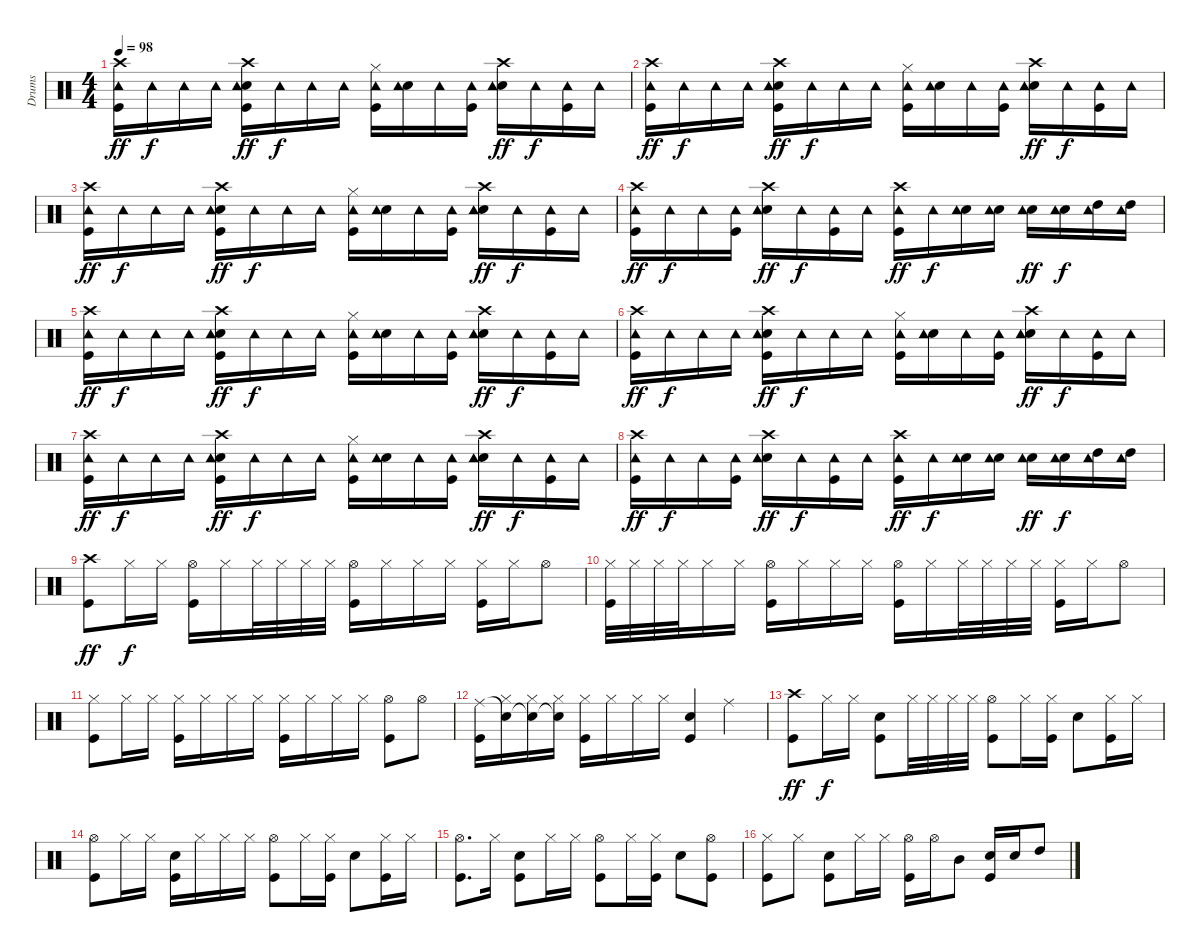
\track ("Drums" "Drums") {instrument percussion}
\staff {score}
\articulation defaults
\ts (4 4)
\tempo 98
\clef neutral
\ks c
("Crash high (hit)" "Kick (hit)" "Tambourine (hit)").16{dy ff} "Tambourine (hit)".16{dy f} "Tambourine (hit)".16 "Tambourine (hit)".16 ("Crash high (hit)" "Kick (hit)" "Electric Snare (hit)" "Tambourine (hit)").16{dy ff} "Tambourine (hit)".16{dy f} "Tambourine (hit)".16 "Tambourine (hit)".16 ("Hi-Hat (closed)" "Kick (hit)" "Tambourine (hit)").16 ("Electric Snare (hit)" "Tambourine (hit)").16 "Tambourine (hit)".16 ("Kick (hit)" "Tambourine (hit)").16 ("Crash high (hit)" "Electric Snare (hit)" "Tambourine (hit)").16{dy ff} "Tambourine (hit)".16{dy f} ("Kick (hit)" "Tambourine (hit)").16 "Tambourine (hit)".16 |
("Crash high (hit)" "Kick (hit)" "Tambourine (hit)").16{dy ff} "Tambourine (hit)".16{dy f} "Tambourine (hit)".16 "Tambourine (hit)".16 ("Crash high (hit)" "Kick (hit)" "Electric Snare (hit)" "Tambourine (hit)").16{dy ff} "Tambourine (hit)".16{dy f} "Tambourine (hit)".16 "Tambourine (hit)".16 ("Hi-Hat (closed)" "Kick (hit)" "Tambourine (hit)").16 ("Electric Snare (hit)" "Tambourine (hit)").16 "Tambourine (hit)".16 ("Kick (hit)" "Tambourine (hit)").16 ("Crash high (hit)" "Electric Snare (hit)" "Tambourine (hit)").16{dy ff} "Tambourine (hit)".16{dy f} ("Kick (hit)" "Tambourine (hit)").16 "Tambourine (hit)".16 |
("Crash high (hit)" "Kick (hit)" "Tambourine (hit)").16{dy ff} "Tambourine (hit)".16{dy f} "Tambourine (hit)".16 "Tambourine (hit)".16 ("Crash high (hit)" "Kick (hit)" "Electric Snare (hit)" "Tambourine (hit)").16{dy ff} "Tambourine (hit)".16{dy f} "Tambourine (hit)".16 "Tambourine (hit)".16 ("Hi-Hat (closed)" "Kick (hit)" "Tambourine (hit)").16 ("Electric Snare (hit)" "Tambourine (hit)").16 "Tambourine (hit)".16 ("Kick (hit)" "Tambourine (hit)").16 ("Crash high (hit)" "Electric Snare (hit)" "Tambourine (hit)").16{dy ff} "Tambourine (hit)".16{dy f} ("Kick (hit)" "Tambourine (hit)").16 "Tambourine (hit)".16 |
("Crash high (hit)" "Kick (hit)" "Tambourine (hit)").16{dy ff} "Tambourine (hit)".16{dy f} "Tambourine (hit)".16 ("Kick (hit)" "Tambourine (hit)").16 ("Crash high (hit)" "Electric Snare (hit)" "Tambourine (hit)").16{dy ff} "Tambourine (hit)".16{dy f} ("Kick (hit)" "Tambourine (hit)").16 "Tambourine (hit)".16 ("Crash high (hit)" "Kick (hit)" "Tambourine (hit)").16{dy ff} "Tambourine (hit)".16{dy f} ("Electric Snare (hit)" "Tambourine (hit)").16 ("Electric Snare (hit)" "Tambourine (hit)").16 ("Electric Snare (hit)" "Tambourine (hit)").16{dy ff} ("Electric Snare (hit)" "Tambourine (hit)").16{dy f} ("High Tom (hit)" "Tambourine (hit)").16 ("High Tom (hit)" "Tambourine (hit)").16 |
("Crash high (hit)" "Kick (hit)" "Tambourine (hit)").16{dy ff} "Tambourine (hit)".16{dy f} "Tambourine (hit)".16 "Tambourine (hit)".16 ("Crash high (hit)" "Kick (hit)" "Electric Snare (hit)" "Tambourine (hit)").16{dy ff} "Tambourine (hit)".16{dy f} "Tambourine (hit)".16 "Tambourine (hit)".16 ("Hi-Hat (closed)" "Kick (hit)" "Tambourine (hit)").16 ("Electric Snare (hit)" "Tambourine (hit)").16 "Tambourine (hit)".16 ("Kick (hit)" "Tambourine (hit)").16 ("Crash high (hit)" "Electric Snare (hit)" "Tambourine (hit)").16{dy ff} "Tambourine (hit)".16{dy f} ("Kick (hit)" "Tambourine (hit)").16 "Tambourine (hit)".16 |
("Crash high (hit)" "Kick (hit)" "Tambourine (hit)").16{dy ff} "Tambourine (hit)".16{dy f} "Tambourine (hit)".16 "Tambourine (hit)".16 ("Crash high (hit)" "Kick (hit)" "Electric Snare (hit)" "Tambourine (hit)").16{dy ff} "Tambourine (hit)".16{dy f} "Tambourine (hit)".16 "Tambourine (hit)".16 ("Hi-Hat (closed)" "Kick (hit)" "Tambourine (hit)").16 ("Electric Snare (hit)" "Tambourine (hit)").16 "Tambourine (hit)".16 ("Kick (hit)" "Tambourine (hit)").16 ("Crash high (hit)" "Electric Snare (hit)" "Tambourine (hit)").16{dy ff} "Tambourine (hit)".16{dy f} ("Kick (hit)" "Tambourine (hit)").16 "Tambourine (hit)".16 |
("Crash high (hit)" "Kick (hit)" "Tambourine (hit)").16{dy ff} "Tambourine (hit)".16{dy f} "Tambourine (hit)".16 "Tambourine (hit)".16 ("Crash high (hit)" "Kick (hit)" "Electric Snare (hit)" "Tambourine (hit)").16{dy ff} "Tambourine (hit)".16{dy f} "Tambourine (hit)".16 "Tambourine (hit)".16 ("Hi-Hat (closed)" "Kick (hit)" "Tambourine (hit)").16 ("Electric Snare (hit)" "Tambourine (hit)").16 "Tambourine (hit)".16 ("Kick (hit)" "Tambourine (hit)").16 ("Crash high (hit)" "Electric Snare (hit)" "Tambourine (hit)").16{dy ff} "Tambourine (hit)".16{dy f} ("Kick (hit)" "Tambourine (hit)").16 "Tambourine (hit)".16 |
("Crash high (hit)" "Kick (hit)" "Tambourine (hit)").16{dy ff} "Tambourine (hit)".16{dy f} "Tambourine (hit)".16 ("Kick (hit)" "Tambourine (hit)").16 ("Crash high (hit)" "Electric Snare (hit)" "Tambourine (hit)").16{dy ff} "Tambourine (hit)".16{dy f} ("Kick (hit)" "Tambourine (hit)").16 "Tambourine (hit)".16 ("Crash high (hit)" "Kick (hit)" "Tambourine (hit)").16{dy ff} "Tambourine (hit)".16{dy f} ("Electric Snare (hit)" "Tambourine (hit)").16 ("Electric Snare (hit)" "Tambourine (hit)").16 ("Electric Snare (hit)" "Tambourine (hit)").16{dy ff} ("Electric Snare (hit)" "Tambourine (hit)").16{dy f} ("High Tom (hit)" "Tambourine (hit)").16 ("High Tom (hit)" "Tambourine (hit)").16 |
("Crash high (hit)" "Kick (hit)").8{dy ff} "Hi-Hat (closed)".16{dy f} "Hi-Hat (closed)".16 ("Hi-Hat (open)" "Kick (hit)").16 "Hi-Hat (closed)".16 "Hi-Hat (closed)".32 "Hi-Hat (closed)".32 "Hi-Hat (closed)".32 "Hi-Hat (closed)".32 ("Hi-Hat (open)" "Kick (hit)").16 "Hi-Hat (closed)".16 "Hi-Hat (closed)".16 "Hi-Hat (closed)".16 ("Hi-Hat (closed)" "Kick (hit)").16 "Hi-Hat (closed)".16 "Hi-Hat (open)".8 |
("Hi-Hat (closed)" "Kick (hit)").32 "Hi-Hat (closed)".32 "Hi-Hat (closed)".32 "Hi-Hat (closed)".32 "Hi-Hat (closed)".16 "Hi-Hat (closed)".16 ("Hi-Hat (open)" "Kick (hit)").16 "Hi-Hat (closed)".16 "Hi-Hat (closed)".16 "Hi-Hat (closed)".16 ("Hi-Hat (open)" "Kick (hit)").16 "Hi-Hat (closed)".16 "Hi-Hat (closed)".32 "Hi-Hat (closed)".32 "Hi-Hat (closed)".32 "Hi-Hat (closed)".32 ("Hi-Hat (closed)" "Kick (hit)").16 "Hi-Hat (closed)".16 "Hi-Hat (open)".8 |
("Hi-Hat (closed)" "Kick (hit)").8 "Hi-Hat (closed)".16 "Hi-Hat (closed)".16 ("Hi-Hat (closed)" "Kick (hit)").16 "Hi-Hat (closed)".16 "Hi-Hat (closed)".16 "Hi-Hat (closed)".16 ("Hi-Hat (closed)" "Kick (hit)").16 "Hi-Hat (closed)".16 "Hi-Hat (closed)".16 "Hi-Hat (closed)".16 ("Hi-Hat (open)" "Kick (hit)").8 "Hi-Hat (open)".8 |
("Kick (hit)" "Ride (middle)").16 ("Hi-Hat (closed)" "Snare (hit)"{t}).16 ("Hi-Hat (closed)" "Snare (hit)"{t}).16 ("Hi-Hat (closed)" "Snare (hit)"{t}).16 ("Hi-Hat (closed)" "Kick (hit)").16 "Hi-Hat (closed)".16 "Hi-Hat (closed)".16 "Hi-Hat (closed)".16 ("Electric Snare (hit)" "Kick (hit)").4 "Ride (middle)".4 |
("Crash high (hit)" "Kick (hit)").8{dy ff} "Hi-Hat (closed)".16{dy f} "Hi-Hat (closed)".16 ("Electric Snare (hit)" "Kick (hit)").8 "Hi-Hat (closed)".32 "Hi-Hat (closed)".32 "Hi-Hat (closed)".32 "Hi-Hat (closed)".32 ("Hi-Hat (open)" "Kick (hit)").8 "Hi-Hat (closed)".16 ("Hi-Hat (closed)" "Kick (hit)").16 "Electric Snare (hit)".8 ("Hi-Hat (closed)" "Kick (hit)").16 "Hi-Hat (closed)".16 |
("Hi-Hat (open)" "Kick (hit)").8 "Hi-Hat (closed)".16 "Hi-Hat (closed)".16 ("Electric Snare (hit)" "Kick (hit)").16 "Hi-Hat (closed)".16 "Hi-Hat (closed)".16 "Hi-Hat (closed)".16 ("Hi-Hat (open)" "Kick (hit)").8 "Hi-Hat (closed)".16 ("Hi-Hat (closed)" "Kick (hit)").16 "Electric Snare (hit)".8 ("Hi-Hat (closed)" "Kick (hit)").16 "Hi-Hat (closed)".16 |
("Hi-Hat (open)" "Kick (hit)").8{d} "Hi-Hat (closed)".16 ("Electric Snare (hit)" "Kick (hit)").8 "Hi-Hat (closed)".16 "Hi-Hat (closed)".16 ("Hi-Hat (open)" "Kick (hit)").8 "Hi-Hat (closed)".16 ("Hi-Hat (closed)" "Kick (hit)").16 "Electric Snare (hit)".8 ("Hi-Hat (open)" "Kick (hit)").8 |
("Hi-Hat (closed)" "Kick (hit)").8 "Hi-Hat (closed)".8 ("Electric Snare (hit)" "Kick (hit)").8 "Hi-Hat (closed)".16 "Hi-Hat (closed)".16 ("Hi-Hat (open)" "Kick (hit)").16 "Hi-Hat (open)".16 "Mid Tom (hit)".8 ("Electric Snare (hit)" "Kick (hit)").16 "Electric Snare (hit)".16 "High Tom (hit)".8
